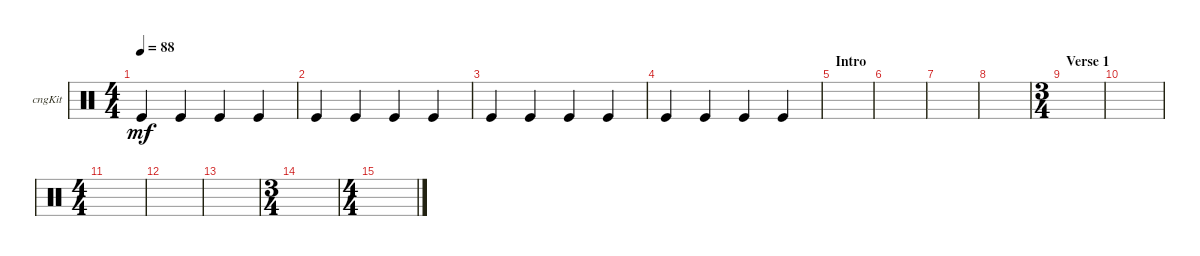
\defaultSystemsLayout 4
\bracketExtendMode groupsimilarinstruments
\firstSystemTrackNameOrientation horizontal
\otherSystemsTrackNameOrientation horizontal
\track ("Congas" "cngKit") {instrument percussion}
\staff {score}
\articulation defaults
\ts (4 4)
\tempo 88
\clef neutral
\scale
0.272
\ks c "Kick (hit)".4{dy mf} "Kick (hit)".4 "Kick (hit)".4 "Kick (hit)".4
|
\scale
0.152 "Kick (hit)".4 "Kick (hit)".4 "Kick (hit)".4 "Kick (hit)".4 |
\scale
0.152 "Kick (hit)".4 "Kick (hit)".4 "Kick (hit)".4 "Kick (hit)".4 |
"Kick (hit)".4 "Kick (hit)".4 "Kick (hit)".4 "Kick (hit)".4 |
\section ("" "Intro")
|
|
|
\scale
0.152 |
\ts (3 4)
\section ("" "Verse 1")
\scale
0.272 |
\scale
0.152 |
\ts (4 4)
\scale
0.272 |
\scale
0.152 |
\scale
0.152 |
\ts (3 4)
\scale
0.272 |
\ts (4 4)
\scale
0.242857 |
\scale
0.135714
